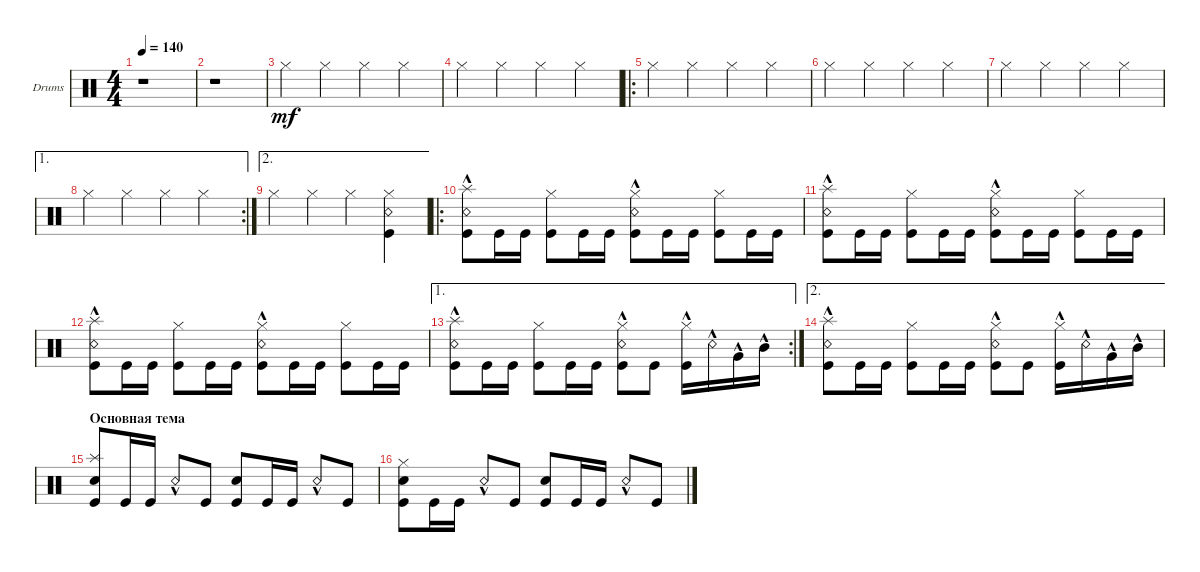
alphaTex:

\bracketExtendMode groupsimilarinstruments
\firstSystemTrackNameOrientation horizontal
\otherSystemsTrackNameOrientation horizontal
\track ("БАРАБАНЫ" "Drums") {solo instrument percussion}
\staff {score}
\articulation defaults
\ts (4 4)
\tempo 140
\clef neutral
\ks c
r.1{dy mf} |
r.1 |
"Hi-Hat (closed)".4 "Hi-Hat (closed)".4 "Hi-Hat (closed)".4 "Hi-Hat (closed)".4 |
"Hi-Hat (closed)".4 "Hi-Hat (closed)".4 "Hi-Hat (closed)".4 "Hi-Hat (closed)".4 |
\ro "Hi-Hat (closed)".4 "Hi-Hat (closed)".4 "Hi-Hat (closed)".4 "Hi-Hat (closed)".4
|
"Hi-Hat (closed)".4 "Hi-Hat (closed)".4 "Hi-Hat (closed)".4 "Hi-Hat (closed)".4 |
"Hi-Hat (closed)".4 "Hi-Hat (closed)".4 "Hi-Hat (closed)".4 "Hi-Hat (closed)".4 |
\ae 1
\rc 2 "Hi-Hat (closed)".4 "Hi-Hat (closed)".4 "Hi-Hat (closed)".4 "Hi-Hat (closed)".4
|
\ae 2 "Hi-Hat (closed)".4 "Hi-Hat (closed)".4 "Hi-Hat (closed)".4
("Hi-Hat (closed)" "Snare (rim shot)" "Kick (hit)").4 |
\ro
("Kick (hit)" "Snare (rim shot)"{hac} "Splash (hit)").8 "Kick (hit)".16 "Kick (hit)".16 ("Kick (hit)" "Hi-Hat (closed)").8 "Kick (hit)".16 "Kick (hit)".16 ("Kick (hit)" "Snare (rim shot)"{hac} "Hi-Hat (closed)").8 "Kick (hit)".16 "Kick (hit)".16 ("Kick (hit)" "Hi-Hat (closed)").8 "Kick (hit)".16 "Kick (hit)".16 |
("Kick (hit)" "Snare (rim shot)"{hac} "Splash (hit)").8 "Kick (hit)".16 "Kick (hit)".16 ("Kick (hit)" "Hi-Hat (closed)").8 "Kick (hit)".16 "Kick (hit)".16 ("Kick (hit)" "Snare (rim shot)"{hac} "Hi-Hat (closed)").8 "Kick (hit)".16 "Kick (hit)".16 ("Kick (hit)" "Hi-Hat (closed)").8 "Kick (hit)".16 "Kick (hit)".16 |
("Kick (hit)" "Snare (rim shot)"{hac} "Splash (hit)").8 "Kick (hit)".16 "Kick (hit)".16 ("Kick (hit)" "Hi-Hat (closed)").8 "Kick (hit)".16 "Kick (hit)".16 ("Kick (hit)" "Snare (rim shot)"{hac} "Hi-Hat (closed)").8 "Kick (hit)".16 "Kick (hit)".16 ("Kick (hit)" "Hi-Hat (closed)").8 "Kick (hit)".16 "Kick (hit)".16 |
\ae 1
\rc 2
("Kick (hit)" "Snare (rim shot)"{hac} "Splash (hit)").8 "Kick (hit)".16 "Kick (hit)".16 ("Kick (hit)" "Hi-Hat (closed)").8 "Kick (hit)".16 "Kick (hit)".16 ("Kick (hit)" "Snare (rim shot)"{hac} "Hi-Hat (closed)").8 "Kick (hit)".8 ("Kick (hit)"{hac} "Hi-Hat (closed)"{hac}).16 "Snare (rim shot)"{hac}.16 "Very Low Tom (hit)"{hac}.16 "Mid Tom (hit)"{hac}.16 |
\ae 2
("Kick (hit)" "Snare (rim shot)"{hac} "Splash (hit)").8 "Kick (hit)".16 "Kick (hit)".16 ("Kick (hit)" "Hi-Hat (closed)").8 "Kick (hit)".16 "Kick (hit)".16 ("Kick (hit)" "Snare (rim shot)"{hac} "Hi-Hat (closed)").8 "Kick (hit)".8 ("Kick (hit)"{hac} "Hi-Hat (closed)"{hac}).16 "Snare (rim shot)"{hac}.16 "Very Low Tom (hit)"{hac}.16 "Mid Tom (hit)"{hac}.16 |
\section ("" "Основная тема")
("Kick (hit)" "Snare (hit) 2" "Splash (hit)").8 "Kick (hit)".16 "Kick (hit)".16 "Snare (rim shot)"{hac}.8 "Kick (hit)".8 ("Kick (hit)" "Snare (hit) 2").8 "Kick (hit)".16 "Kick (hit)".16 "Snare (rim shot)"{hac}.8 "Kick (hit)".8 |
("Kick (hit)" "Snare (hit) 2" "Hi-Hat (closed)").8 "Kick (hit)".16 "Kick (hit)".16 "Snare (rim shot)"{hac}.8 "Kick (hit)".8 ("Kick (hit)" "Snare (hit) 2").8 "Kick (hit)".16 "Kick (hit)".16 "Snare (rim shot)"{hac}.8 "Kick (hit)".8
